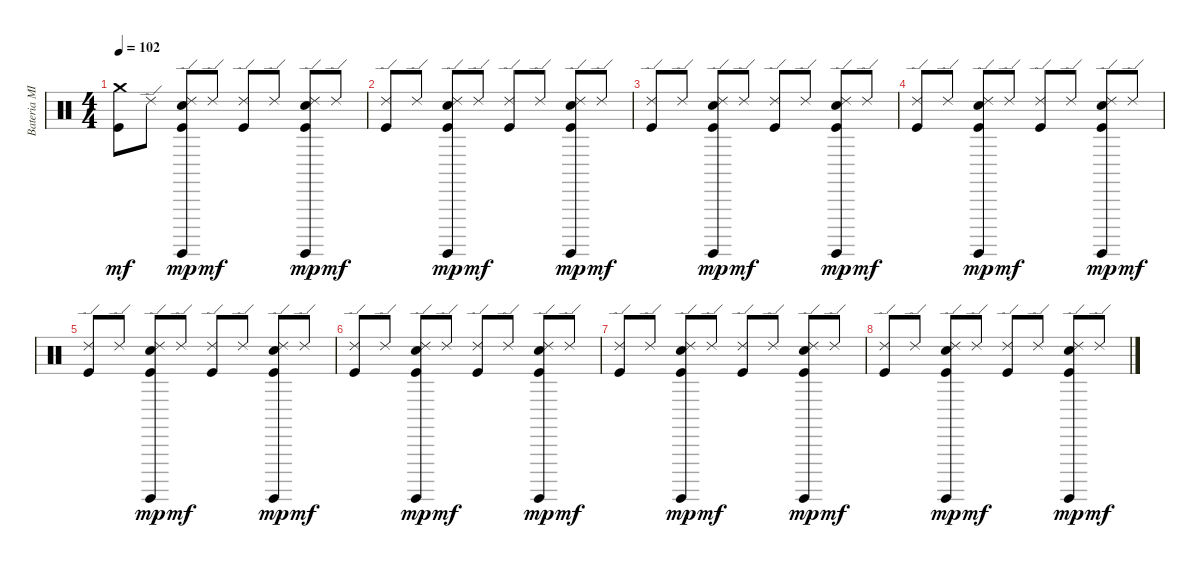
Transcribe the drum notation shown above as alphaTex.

\track ("Bateria MIDI" "Bateria MI") {instrument percussion}
\staff {score}
\articulation defaults
\ts (4 4)
\tempo 102
\clef neutral
\ks c
("Crash medium (hit)" "Kick (hit)").8{dy mf} "Ride (edge) 2".8 ("Ride (edge) 2" "Surdo (hit)" "Electric Snare (hit)" "Kick (hit)").8{dy mp} "Ride (edge) 2".8{dy mf} ("Ride (edge) 2" "Kick (hit)").8 "Ride (edge) 2".8 ("Ride (edge) 2" "Surdo (hit)" "Electric Snare (hit)" "Kick (hit)").8{dy mp} "Ride (edge) 2".8{dy mf volume 13} |
("Ride (edge) 2" "Kick (hit)").8{volume 2} "Ride (edge) 2".8 ("Ride (edge) 2" "Surdo (hit)" "Electric Snare (hit)" "Kick (hit)").8{dy mp} "Ride (edge) 2".8{dy mf} ("Ride (edge) 2" "Kick (hit)").8 "Ride (edge) 2".8 ("Ride (edge) 2" "Surdo (hit)" "Electric Snare (hit)" "Kick (hit)").8{dy mp} "Ride (edge) 2".8{dy mf} |
("Ride (edge) 2" "Kick (hit)").8 "Ride (edge) 2".8 ("Ride (edge) 2" "Surdo (hit)" "Electric Snare (hit)" "Kick (hit)").8{dy mp} "Ride (edge) 2".8{dy mf} ("Ride (edge) 2" "Kick (hit)").8 "Ride (edge) 2".8 ("Ride (edge) 2" "Surdo (hit)" "Electric Snare (hit)" "Kick (hit)").8{dy mp} "Ride (edge) 2".8{dy mf} |
("Ride (edge) 2" "Kick (hit)").8 "Ride (edge) 2".8 ("Ride (edge) 2" "Surdo (hit)" "Electric Snare (hit)" "Kick (hit)").8{dy mp} "Ride (edge) 2".8{dy mf} ("Ride (edge) 2" "Kick (hit)").8 "Ride (edge) 2".8 ("Ride (edge) 2" "Surdo (hit)" "Electric Snare (hit)" "Kick (hit)").8{dy mp} "Ride (edge) 2".8{dy mf} |
("Ride (edge) 2" "Kick (hit)").8 "Ride (edge) 2".8 ("Ride (edge) 2" "Surdo (hit)" "Electric Snare (hit)" "Kick (hit)").8{dy mp} "Ride (edge) 2".8{dy mf} ("Ride (edge) 2" "Kick (hit)").8 "Ride (edge) 2".8 ("Ride (edge) 2" "Surdo (hit)" "Electric Snare (hit)" "Kick (hit)").8{dy mp} "Ride (edge) 2".8{dy mf} |
("Ride (edge) 2" "Kick (hit)").8 "Ride (edge) 2".8 ("Ride (edge) 2" "Surdo (hit)" "Electric Snare (hit)" "Kick (hit)").8{dy mp} "Ride (edge) 2".8{dy mf} ("Ride (edge) 2" "Kick (hit)").8 "Ride (edge) 2".8 ("Ride (edge) 2" "Surdo (hit)" "Electric Snare (hit)" "Kick (hit)").8{dy mp} "Ride (edge) 2".8{dy mf volume 2} |
("Ride (edge) 2" "Kick (hit)").8{volume 0} "Ride (edge) 2".8 ("Ride (edge) 2" "Surdo (hit)" "Electric Snare (hit)" "Kick (hit)").8{dy mp} "Ride (edge) 2".8{dy mf} ("Ride (edge) 2" "Kick (hit)").8 "Ride (edge) 2".8 ("Ride (edge) 2" "Surdo (hit)" "Electric Snare (hit)" "Kick (hit)").8{dy mp} "Ride (edge) 2".8{dy mf} |
("Ride (edge) 2" "Kick (hit)").8 "Ride (edge) 2".8 ("Ride (edge) 2" "Surdo (hit)" "Electric Snare (hit)" "Kick (hit)").8{dy mp} "Ride (edge) 2".8{dy mf} ("Ride (edge) 2" "Kick (hit)").8 "Ride (edge) 2".8 ("Ride (edge) 2" "Surdo (hit)" "Electric Snare (hit)" "Kick (hit)").8{dy mp} "Ride (edge) 2".8{dy mf}
